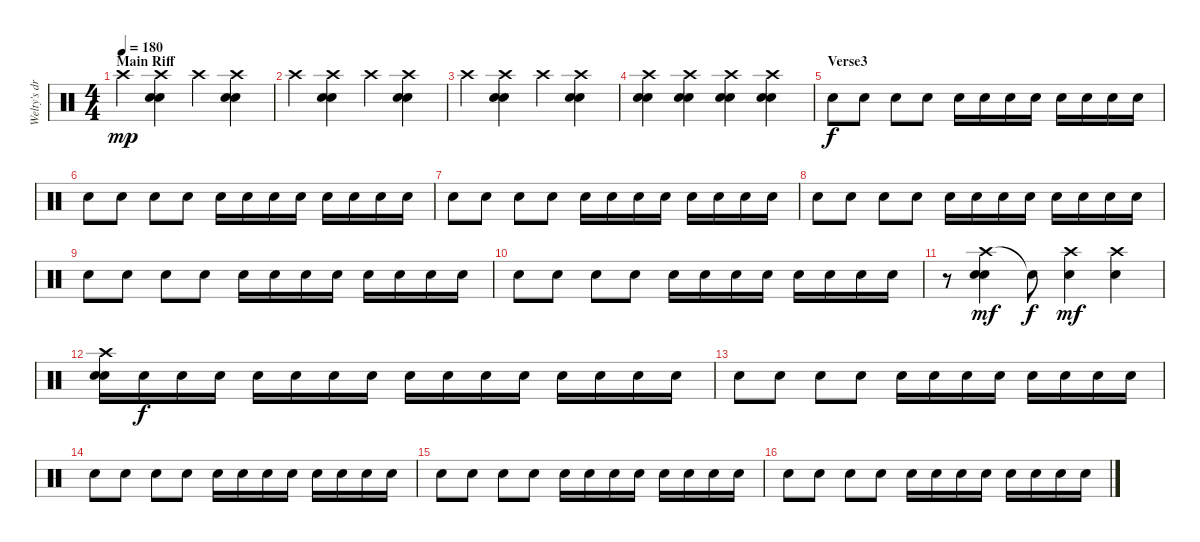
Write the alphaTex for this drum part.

\track ("Welty's drums" "Welty's dr") {instrument percussion}
\staff {score}
\articulation defaults
\ts (4 4)
\section ("" "Main Riff")
\tempo 180
\clef neutral
\ks c "Crash high (hit)".4{dy mp}
("Crash high (hit)" "Electric Snare (hit)" "Electric Snare (hit)").4 "Crash high (hit)".4 ("Crash high (hit)" "Electric Snare (hit)" "Electric Snare (hit)").4 |
"Crash high (hit)".4 ("Crash high (hit)" "Electric Snare (hit)" "Electric Snare (hit)").4 "Crash high (hit)".4 ("Crash high (hit)" "Electric Snare (hit)" "Electric Snare (hit)").4 |
"Crash high (hit)".4 ("Crash high (hit)" "Electric Snare (hit)" "Electric Snare (hit)").4 "Crash high (hit)".4 ("Crash high (hit)" "Electric Snare (hit)" "Electric Snare (hit)").4 |
("Crash high (hit)" "Electric Snare (hit)" "Electric Snare (hit)").4 ("Crash high (hit)" "Electric Snare (hit)" "Electric Snare (hit)").4 ("Crash high (hit)" "Electric Snare (hit)" "Electric Snare (hit)").4 ("Crash high (hit)" "Electric Snare (hit)" "Electric Snare (hit)").4 |
\section ("" "Verse3")
"Electric Snare (hit)".8{dy f} "Electric Snare (hit)".8 "Electric Snare (hit)".8 "Electric Snare (hit)".8 "Electric Snare (hit)".16 "Electric Snare (hit)".16 "Electric Snare (hit)".16 "Electric Snare (hit)".16 "Electric Snare (hit)".16 "Electric Snare (hit)".16 "Electric Snare (hit)".16 "Electric Snare (hit)".16 |
"Electric Snare (hit)".8 "Electric Snare (hit)".8 "Electric Snare (hit)".8 "Electric Snare (hit)".8 "Electric Snare (hit)".16 "Electric Snare (hit)".16 "Electric Snare (hit)".16 "Electric Snare (hit)".16 "Electric Snare (hit)".16 "Electric Snare (hit)".16 "Electric Snare (hit)".16 "Electric Snare (hit)".16 |
"Electric Snare (hit)".8 "Electric Snare (hit)".8 "Electric Snare (hit)".8 "Electric Snare (hit)".8 "Electric Snare (hit)".16 "Electric Snare (hit)".16 "Electric Snare (hit)".16 "Electric Snare (hit)".16 "Electric Snare (hit)".16 "Electric Snare (hit)".16 "Electric Snare (hit)".16 "Electric Snare (hit)".16 |
"Electric Snare (hit)".8 "Electric Snare (hit)".8 "Electric Snare (hit)".8 "Electric Snare (hit)".8 "Electric Snare (hit)".16 "Electric Snare (hit)".16 "Electric Snare (hit)".16 "Electric Snare (hit)".16 "Electric Snare (hit)".16 "Electric Snare (hit)".16 "Electric Snare (hit)".16 "Electric Snare (hit)".16 |
"Electric Snare (hit)".8 "Electric Snare (hit)".8 "Electric Snare (hit)".8 "Electric Snare (hit)".8 "Electric Snare (hit)".16 "Electric Snare (hit)".16 "Electric Snare (hit)".16 "Electric Snare (hit)".16 "Electric Snare (hit)".16 "Electric Snare (hit)".16 "Electric Snare (hit)".16 "Electric Snare (hit)".16 |
"Electric Snare (hit)".8 "Electric Snare (hit)".8 "Electric Snare (hit)".8 "Electric Snare (hit)".8 "Electric Snare (hit)".16 "Electric Snare (hit)".16 "Electric Snare (hit)".16 "Electric Snare (hit)".16 "Electric Snare (hit)".16 "Electric Snare (hit)".16 "Electric Snare (hit)".16 "Electric Snare (hit)".16 |
r.8 ("Crash high (hit)" "Electric Snare (hit)" "Electric Snare (hit)").4{dy mf} "Snare (hit)"{t}.8{dy f} ("Crash high (hit)" "Electric Snare (hit)").4{dy mf} ("Crash high (hit)" "Electric Snare (hit)").4 |
("Crash high (hit)" "Electric Snare (hit)" "Electric Snare (hit)").16 "Electric Snare (hit)".16{dy f} "Electric Snare (hit)".16 "Electric Snare (hit)".16 "Electric Snare (hit)".16 "Electric Snare (hit)".16 "Electric Snare (hit)".16 "Electric Snare (hit)".16 "Electric Snare (hit)".16 "Electric Snare (hit)".16 "Electric Snare (hit)".16 "Electric Snare (hit)".16 "Electric Snare (hit)".16 "Electric Snare (hit)".16 "Electric Snare (hit)".16 "Electric Snare (hit)".16 |
"Electric Snare (hit)".8 "Electric Snare (hit)".8 "Electric Snare (hit)".8 "Electric Snare (hit)".8 "Electric Snare (hit)".16 "Electric Snare (hit)".16 "Electric Snare (hit)".16 "Electric Snare (hit)".16 "Electric Snare (hit)".16 "Electric Snare (hit)".16 "Electric Snare (hit)".16 "Electric Snare (hit)".16 |
"Electric Snare (hit)".8 "Electric Snare (hit)".8 "Electric Snare (hit)".8 "Electric Snare (hit)".8 "Electric Snare (hit)".16 "Electric Snare (hit)".16 "Electric Snare (hit)".16 "Electric Snare (hit)".16 "Electric Snare (hit)".16 "Electric Snare (hit)".16 "Electric Snare (hit)".16 "Electric Snare (hit)".16 |
"Electric Snare (hit)".8 "Electric Snare (hit)".8 "Electric Snare (hit)".8 "Electric Snare (hit)".8 "Electric Snare (hit)".16 "Electric Snare (hit)".16 "Electric Snare (hit)".16 "Electric Snare (hit)".16 "Electric Snare (hit)".16 "Electric Snare (hit)".16 "Electric Snare (hit)".16 "Electric Snare (hit)".16 |
"Electric Snare (hit)".8 "Electric Snare (hit)".8 "Electric Snare (hit)".8 "Electric Snare (hit)".8 "Electric Snare (hit)".16 "Electric Snare (hit)".16 "Electric Snare (hit)".16 "Electric Snare (hit)".16 "Electric Snare (hit)".16 "Electric Snare (hit)".16 "Electric Snare (hit)".16 "Electric Snare (hit)".16
